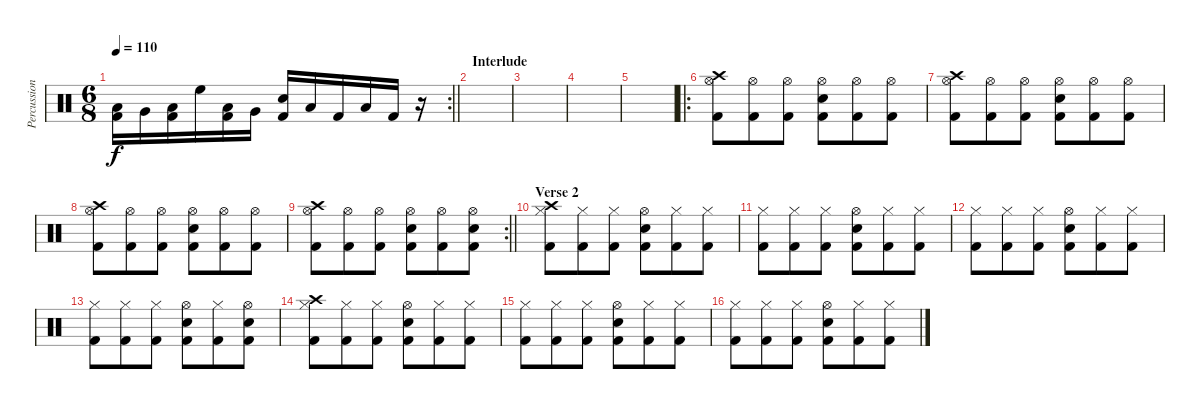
\track ("Percussion" "Percussion") {instrument percussion}
\staff {score}
\articulation defaults
\rc 2
\ts (6 8)
\tempo 110
\clef neutral
\barLineRight lightlight
\ks c
("Low Tom (hit)" "Kick (hit) 2").16{dy f} "Very Low Tom (hit)".16 ("Low Floor Tom (hit)" "Kick (hit) 2").16 "High Floor Tom (hit)".16 ("Low Tom (hit)" "Kick (hit) 2").16 "Very Low Tom (hit)".16 ("Electric Snare (hit)" "Kick (hit) 2").16 "Low Floor Tom (hit)".16 "Kick (hit) 2".16 "Low Tom (hit)".16 "Kick (hit) 2".16 r.16 |
\section ("" "Interlude")
|
|
|
|
\ro
("Crash high (hit)" "Hi-Hat (open)" "Kick (hit) 2").8 ("Hi-Hat (open)" "Kick (hit) 2").8 ("Hi-Hat (open)" "Kick (hit) 2").8 ("Hi-Hat (open)" "Electric Snare (hit)" "Kick (hit) 2").8 ("Hi-Hat (open)" "Kick (hit) 2").8 ("Hi-Hat (open)" "Kick (hit) 2").8 |
("Crash high (hit)" "Hi-Hat (open)" "Kick (hit) 2").8 ("Hi-Hat (open)" "Kick (hit) 2").8 ("Hi-Hat (open)" "Kick (hit) 2").8 ("Hi-Hat (open)" "Electric Snare (hit)" "Kick (hit) 2").8 ("Hi-Hat (open)" "Kick (hit) 2").8 ("Hi-Hat (open)" "Kick (hit) 2").8 |
("Crash high (hit)" "Hi-Hat (open)" "Kick (hit) 2").8 ("Hi-Hat (open)" "Kick (hit) 2").8 ("Hi-Hat (open)" "Kick (hit) 2").8 ("Hi-Hat (open)" "Electric Snare (hit)" "Kick (hit) 2").8 ("Hi-Hat (open)" "Kick (hit) 2").8 ("Hi-Hat (open)" "Kick (hit) 2").8 |
\rc 2
\barLineRight lightlight
("Crash high (hit)" "Hi-Hat (open)" "Kick (hit) 2").8 ("Hi-Hat (open)" "Kick (hit) 2").8 ("Hi-Hat (open)" "Kick (hit) 2").8 ("Hi-Hat (open)" "Electric Snare (hit)" "Kick (hit) 2").8 ("Hi-Hat (open)" "Kick (hit) 2").8 ("Hi-Hat (open)" "Electric Snare (hit)" "Kick (hit) 2").8 |
\section ("" "Verse 2")
("Crash high (hit)" "Hi-Hat (closed)" "Kick (hit) 2").8 ("Hi-Hat (closed)" "Kick (hit) 2").8 ("Hi-Hat (closed)" "Kick (hit) 2").8 ("Hi-Hat (open)" "Electric Snare (hit)" "Kick (hit) 2").8 ("Hi-Hat (closed)" "Kick (hit) 2").8 ("Hi-Hat (closed)" "Kick (hit) 2").8 |
("Hi-Hat (closed)" "Kick (hit) 2").8 ("Hi-Hat (closed)" "Kick (hit) 2").8 ("Hi-Hat (closed)" "Kick (hit) 2").8 ("Hi-Hat (open)" "Electric Snare (hit)" "Kick (hit) 2").8 ("Hi-Hat (closed)" "Kick (hit) 2").8 ("Hi-Hat (closed)" "Kick (hit) 2").8 |
("Hi-Hat (closed)" "Kick (hit) 2").8 ("Hi-Hat (closed)" "Kick (hit) 2").8 ("Hi-Hat (closed)" "Kick (hit) 2").8 ("Hi-Hat (open)" "Electric Snare (hit)" "Kick (hit) 2").8 ("Hi-Hat (closed)" "Kick (hit) 2").8 ("Hi-Hat (closed)" "Kick (hit) 2").8 |
("Hi-Hat (closed)" "Kick (hit) 2").8 ("Hi-Hat (closed)" "Kick (hit) 2").8 ("Hi-Hat (closed)" "Kick (hit) 2").8 ("Hi-Hat (open)" "Electric Snare (hit)" "Kick (hit) 2").8 ("Hi-Hat (closed)" "Kick (hit) 2").8 ("Hi-Hat (open)" "Electric Snare (hit)" "Kick (hit) 2").8 |
("Crash high (hit)" "Hi-Hat (closed)" "Kick (hit) 2").8 ("Hi-Hat (closed)" "Kick (hit) 2").8 ("Hi-Hat (closed)" "Kick (hit) 2").8 ("Hi-Hat (open)" "Electric Snare (hit)" "Kick (hit) 2").8 ("Hi-Hat (closed)" "Kick (hit) 2").8 ("Hi-Hat (closed)" "Kick (hit) 2").8 |
("Hi-Hat (closed)" "Kick (hit) 2").8 ("Hi-Hat (closed)" "Kick (hit) 2").8 ("Hi-Hat (closed)" "Kick (hit) 2").8 ("Hi-Hat (open)" "Electric Snare (hit)" "Kick (hit) 2").8 ("Hi-Hat (closed)" "Kick (hit) 2").8 ("Hi-Hat (closed)" "Kick (hit) 2").8 |
("Hi-Hat (closed)" "Kick (hit) 2").8 ("Hi-Hat (closed)" "Kick (hit) 2").8 ("Hi-Hat (closed)" "Kick (hit) 2").8 ("Hi-Hat (open)" "Electric Snare (hit)" "Kick (hit) 2").8 ("Hi-Hat (closed)" "Kick (hit) 2").8 ("Hi-Hat (closed)" "Kick (hit) 2").8
